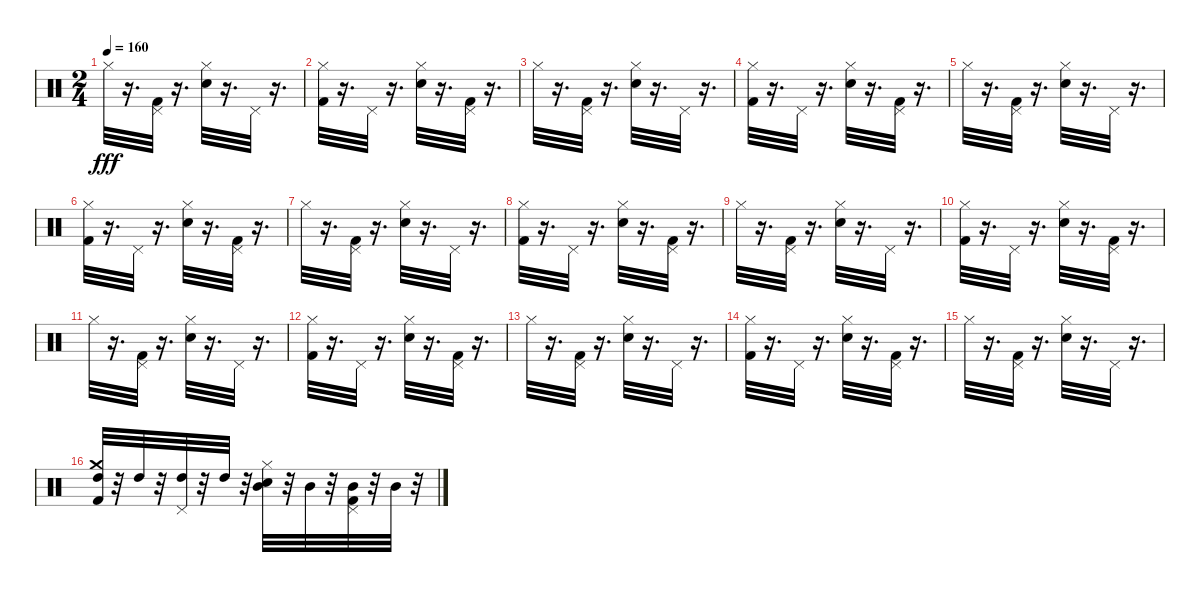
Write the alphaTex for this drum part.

\track "" {instrument percussion}
\staff {score}
\articulation defaults
\ts (2 4)
\tempo 160
\clef neutral
\ks c "Hi-Hat (closed)".32{dy fff}
r.16{d} ("Pedal Hi-Hat (hit)" "Kick (hit) 2").32 r.16{d} ("Hi-Hat (closed)" "Snare (hit) 2").32 r.16{d} "Pedal Hi-Hat (hit)".32 r.16{d} |
("Hi-Hat (closed)" "Kick (hit) 2").32 r.16{d} "Pedal Hi-Hat (hit)".32 r.16{d} ("Hi-Hat (closed)" "Snare (hit) 2").32 r.16{d} ("Pedal Hi-Hat (hit)" "Kick (hit) 2").32 r.16{d} |
"Hi-Hat (closed)".32 r.16{d} ("Pedal Hi-Hat (hit)" "Kick (hit) 2").32 r.16{d} ("Hi-Hat (closed)" "Snare (hit) 2").32 r.16{d} "Pedal Hi-Hat (hit)".32 r.16{d} |
("Hi-Hat (closed)" "Kick (hit) 2").32 r.16{d} "Pedal Hi-Hat (hit)".32 r.16{d} ("Hi-Hat (closed)" "Snare (hit) 2").32 r.16{d} ("Pedal Hi-Hat (hit)" "Kick (hit) 2").32 r.16{d} |
"Hi-Hat (closed)".32 r.16{d} ("Pedal Hi-Hat (hit)" "Kick (hit) 2").32 r.16{d} ("Hi-Hat (closed)" "Snare (hit) 2").32 r.16{d} "Pedal Hi-Hat (hit)".32 r.16{d} |
("Hi-Hat (closed)" "Kick (hit) 2").32 r.16{d} "Pedal Hi-Hat (hit)".32 r.16{d} ("Hi-Hat (closed)" "Snare (hit) 2").32 r.16{d} ("Pedal Hi-Hat (hit)" "Kick (hit) 2").32 r.16{d} |
"Hi-Hat (closed)".32 r.16{d} ("Pedal Hi-Hat (hit)" "Kick (hit) 2").32 r.16{d} ("Hi-Hat (closed)" "Snare (hit) 2").32 r.16{d} "Pedal Hi-Hat (hit)".32 r.16{d} |
("Hi-Hat (closed)" "Kick (hit) 2").32 r.16{d} "Pedal Hi-Hat (hit)".32 r.16{d} ("Hi-Hat (closed)" "Snare (hit) 2").32 r.16{d} ("Pedal Hi-Hat (hit)" "Kick (hit) 2").32 r.16{d} |
"Hi-Hat (closed)".32 r.16{d} ("Pedal Hi-Hat (hit)" "Kick (hit) 2").32 r.16{d} ("Hi-Hat (closed)" "Snare (hit) 2").32 r.16{d} "Pedal Hi-Hat (hit)".32 r.16{d} |
("Hi-Hat (closed)" "Kick (hit) 2").32 r.16{d} "Pedal Hi-Hat (hit)".32 r.16{d} ("Hi-Hat (closed)" "Snare (hit) 2").32 r.16{d} ("Pedal Hi-Hat (hit)" "Kick (hit) 2").32 r.16{d} |
"Hi-Hat (closed)".32 r.16{d} ("Pedal Hi-Hat (hit)" "Kick (hit) 2").32 r.16{d} ("Hi-Hat (closed)" "Snare (hit) 2").32 r.16{d} "Pedal Hi-Hat (hit)".32 r.16{d} |
("Hi-Hat (closed)" "Kick (hit) 2").32 r.16{d} "Pedal Hi-Hat (hit)".32 r.16{d} ("Hi-Hat (closed)" "Snare (hit) 2").32 r.16{d} ("Pedal Hi-Hat (hit)" "Kick (hit) 2").32 r.16{d} |
"Hi-Hat (closed)".32 r.16{d} ("Pedal Hi-Hat (hit)" "Kick (hit) 2").32 r.16{d} ("Hi-Hat (closed)" "Snare (hit) 2").32 r.16{d} "Pedal Hi-Hat (hit)".32 r.16{d} |
("Hi-Hat (closed)" "Kick (hit) 2").32 r.16{d} "Pedal Hi-Hat (hit)".32 r.16{d} ("Hi-Hat (closed)" "Snare (hit) 2").32 r.16{d} ("Pedal Hi-Hat (hit)" "Kick (hit) 2").32 r.16{d} |
"Hi-Hat (closed)".32 r.16{d} ("Pedal Hi-Hat (hit)" "Kick (hit) 2").32 r.16{d} ("Hi-Hat (closed)" "Snare (hit) 2").32 r.16{d} "Pedal Hi-Hat (hit)".32 r.16{d} |
("Crash medium (hit)" "High Tom (hit)" "Kick (hit) 2").32 r.32 "High Tom (hit)".32 r.32 ("High Tom (hit)" "Pedal Hi-Hat (hit)").32 r.32 "High Tom (hit)".32 r.32 ("Mid Tom (hit)" "Hi-Hat (closed)" "Snare (hit) 2").32 r.32 "Mid Tom (hit)".32 r.32 ("Mid Tom (hit)" "Pedal Hi-Hat (hit)" "Kick (hit) 2").32 r.32 "Mid Tom (hit)".32 r.32
